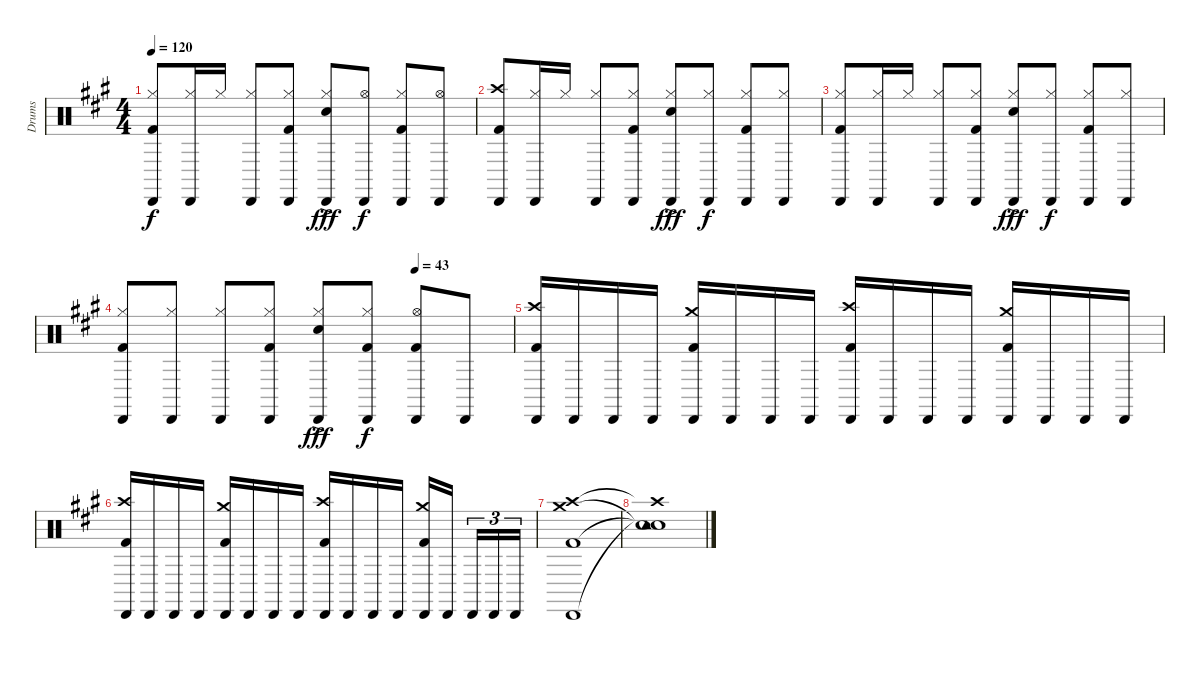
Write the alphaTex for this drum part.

\track ("Drums" "Drums") {instrument percussion}
\staff {score}
\articulation defaults
\ts (4 4)
\tempo 120
\clef neutral
\ks a
("Hi-Hat (closed)" "Kick (hit) 2" "Cabasa (hit)").8{dy f} ("Hi-Hat (closed)" "Cabasa (hit)").16 "Hi-Hat (closed)".16 ("Hi-Hat (closed)" "Cabasa (hit)").8 ("Hi-Hat (closed)" "Kick (hit) 2" "Cabasa (hit)").8 ("Hi-Hat (closed)" "Snare (hit) 2" "Cabasa (hit)"{ac}).8{dy fff} ("Hi-Hat (open)" "Cabasa (hit)").8{dy f} ("Hi-Hat (closed)" "Kick (hit) 2" "Cabasa (hit)").8 ("Hi-Hat (open)" "Cabasa (hit)").8 |
("Crash high (hit)" "Kick (hit) 2" "Cabasa (hit)").8 ("Hi-Hat (closed)" "Cabasa (hit)").16 "Hi-Hat (closed)".16 ("Hi-Hat (closed)" "Cabasa (hit)").8 ("Hi-Hat (closed)" "Kick (hit) 2" "Cabasa (hit)").8 ("Hi-Hat (closed)" "Snare (hit) 2" "Cabasa (hit)"{ac}).8{dy fff} ("Hi-Hat (closed)" "Cabasa (hit)").8{dy f} ("Hi-Hat (closed)" "Kick (hit) 2" "Cabasa (hit)").8 ("Hi-Hat (closed)" "Cabasa (hit)").8 |
("Hi-Hat (closed)" "Kick (hit) 2" "Cabasa (hit)").8 ("Hi-Hat (closed)" "Cabasa (hit)").16 "Hi-Hat (closed)".16 ("Hi-Hat (closed)" "Cabasa (hit)").8 ("Hi-Hat (closed)" "Kick (hit) 2" "Cabasa (hit)").8 ("Hi-Hat (closed)" "Snare (hit) 2" "Cabasa (hit)"{ac}).8{dy fff} ("Hi-Hat (closed)" "Cabasa (hit)").8{dy f} ("Hi-Hat (closed)" "Kick (hit) 2" "Cabasa (hit)").8 ("Hi-Hat (closed)" "Cabasa (hit)").8 |
\tempo (43 0.75)
("Hi-Hat (closed)" "Kick (hit) 2" "Cabasa (hit)").8 ("Hi-Hat (closed)" "Cabasa (hit)").8 ("Hi-Hat (closed)" "Cabasa (hit)").8 ("Hi-Hat (closed)" "Kick (hit) 2" "Cabasa (hit)").8 ("Hi-Hat (closed)" "Snare (hit) 2" "Cabasa (hit)"{ac}).8{dy fff} ("Hi-Hat (closed)" "Kick (hit) 2" "Cabasa (hit)").8{dy f} ("Hi-Hat (open)" "Kick (hit) 2" "Cabasa (hit)").8 "Cabasa (hit)".8 |
("Crash high (hit)" "Kick (hit) 2" "Cabasa (hit)").16 "Cabasa (hit)".16 "Cabasa (hit)".16 "Cabasa (hit)".16 ("Crash medium (hit)" "Kick (hit) 2" "Cabasa (hit)").16 "Cabasa (hit)".16 "Cabasa (hit)".16 "Cabasa (hit)".16 ("Crash high (hit)" "Kick (hit) 2" "Cabasa (hit)").16 "Cabasa (hit)".16 "Cabasa (hit)".16 "Cabasa (hit)".16 ("Crash medium (hit)" "Kick (hit) 2" "Cabasa (hit)").16 "Cabasa (hit)".16 "Cabasa (hit)".16 "Cabasa (hit)".16 |
("Crash high (hit)" "Kick (hit) 2" "Cabasa (hit)").16 "Cabasa (hit)".16 "Cabasa (hit)".16 "Cabasa (hit)".16 ("Crash medium (hit)" "Kick (hit) 2" "Cabasa (hit)").16 "Cabasa (hit)".16 "Cabasa (hit)".16 "Cabasa (hit)".16 ("Crash high (hit)" "Kick (hit) 2" "Cabasa (hit)").16 "Cabasa (hit)".16 "Cabasa (hit)".16 "Cabasa (hit)".16 ("Crash medium (hit)" "Kick (hit) 2" "Cabasa (hit)").16 "Cabasa (hit)".16 "Cabasa (hit)".16{tu (3 2)} "Cabasa (hit)".16{tu (3 2)} "Cabasa (hit)".16{tu (3 2)} |
("Crash high (hit)" "Crash medium (hit)" "Kick (hit) 2" "Cabasa (hit)").1 |
("Crash high (hit)"{t} "Snare (hit)"{t} "Snare (hit)"{t} "Tambourine (hit)"{t}).1
